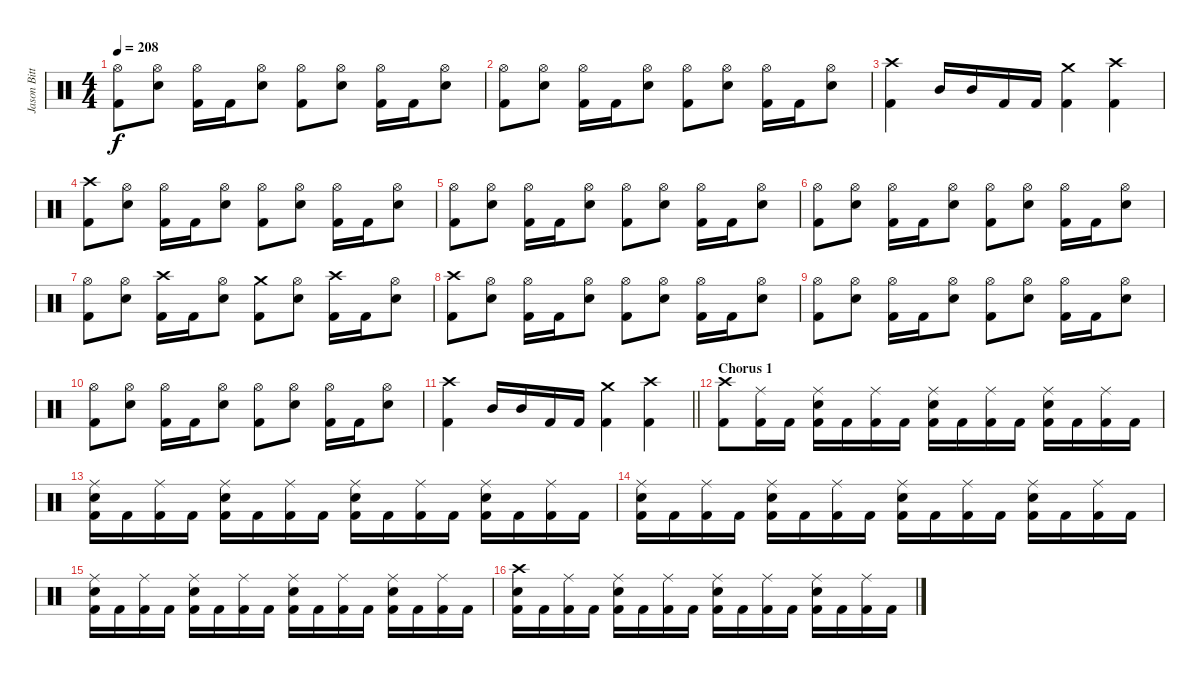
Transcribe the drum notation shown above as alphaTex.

\track ("Jason Bittner" "Jason Bitt") {instrument percussion}
\staff {score}
\articulation defaults
\ts (4 4)
\tempo 208
\clef neutral
\ks c
("Hi-Hat (open)" "Kick (hit) 2").8{dy f} ("Hi-Hat (open)" "Electric Snare (hit)").8 ("Hi-Hat (open)" "Kick (hit) 2").16 "Kick (hit) 2".16 ("Hi-Hat (open)" "Electric Snare (hit)").8 ("Hi-Hat (open)" "Kick (hit) 2").8 ("Hi-Hat (open)" "Electric Snare (hit)").8 ("Hi-Hat (open)" "Kick (hit) 2").16 "Kick (hit) 2".16 ("Hi-Hat (open)" "Electric Snare (hit)").8 |
("Hi-Hat (open)" "Kick (hit) 2").8 ("Hi-Hat (open)" "Electric Snare (hit)").8 ("Hi-Hat (open)" "Kick (hit) 2").16 "Kick (hit) 2".16 ("Hi-Hat (open)" "Electric Snare (hit)").8 ("Hi-Hat (open)" "Kick (hit) 2").8 ("Hi-Hat (open)" "Electric Snare (hit)").8 ("Hi-Hat (open)" "Kick (hit) 2").16 "Kick (hit) 2".16 ("Hi-Hat (open)" "Electric Snare (hit)").8 |
("Crash high (hit)" "Kick (hit) 2").4 "Mid Tom (hit)".16 "Mid Tom (hit)".16 "Kick (hit) 2".16 "Kick (hit) 2".16 ("Crash medium (hit)" "Kick (hit) 2").4 ("Crash high (hit)" "Kick (hit) 2").4 |
("Crash high (hit)" "Kick (hit) 2").8 ("Hi-Hat (open)" "Electric Snare (hit)").8 ("Hi-Hat (open)" "Kick (hit) 2").16 "Kick (hit) 2".16 ("Hi-Hat (open)" "Electric Snare (hit)").8 ("Hi-Hat (open)" "Kick (hit) 2").8 ("Hi-Hat (open)" "Electric Snare (hit)").8 ("Hi-Hat (open)" "Kick (hit) 2").16 "Kick (hit) 2".16 ("Hi-Hat (open)" "Electric Snare (hit)").8 |
("Hi-Hat (open)" "Kick (hit) 2").8 ("Hi-Hat (open)" "Electric Snare (hit)").8 ("Hi-Hat (open)" "Kick (hit) 2").16 "Kick (hit) 2".16 ("Hi-Hat (open)" "Electric Snare (hit)").8 ("Hi-Hat (open)" "Kick (hit) 2").8 ("Hi-Hat (open)" "Electric Snare (hit)").8 ("Hi-Hat (open)" "Kick (hit) 2").16 "Kick (hit) 2".16 ("Hi-Hat (open)" "Electric Snare (hit)").8 |
("Hi-Hat (open)" "Kick (hit) 2").8 ("Hi-Hat (open)" "Electric Snare (hit)").8 ("Hi-Hat (open)" "Kick (hit) 2").16 "Kick (hit) 2".16 ("Hi-Hat (open)" "Electric Snare (hit)").8 ("Hi-Hat (open)" "Kick (hit) 2").8 ("Hi-Hat (open)" "Electric Snare (hit)").8 ("Hi-Hat (open)" "Kick (hit) 2").16 "Kick (hit) 2".16 ("Hi-Hat (open)" "Electric Snare (hit)").8 |
("Hi-Hat (open)" "Kick (hit) 2").8 ("Hi-Hat (open)" "Electric Snare (hit)").8 ("Crash high (hit)" "Kick (hit) 2").16 "Kick (hit) 2".16 ("Hi-Hat (open)" "Electric Snare (hit)").8 ("Crash medium (hit)" "Kick (hit) 2").8 ("Hi-Hat (open)" "Electric Snare (hit)").8 ("Crash high (hit)" "Kick (hit) 2").16 "Kick (hit) 2".16 ("Hi-Hat (open)" "Electric Snare (hit)").8 |
("Crash high (hit)" "Kick (hit) 2").8 ("Hi-Hat (open)" "Electric Snare (hit)").8 ("Hi-Hat (open)" "Kick (hit) 2").16 "Kick (hit) 2".16 ("Hi-Hat (open)" "Electric Snare (hit)").8 ("Hi-Hat (open)" "Kick (hit) 2").8 ("Hi-Hat (open)" "Electric Snare (hit)").8 ("Hi-Hat (open)" "Kick (hit) 2").16 "Kick (hit) 2".16 ("Hi-Hat (open)" "Electric Snare (hit)").8 |
("Hi-Hat (open)" "Kick (hit) 2").8 ("Hi-Hat (open)" "Electric Snare (hit)").8 ("Hi-Hat (open)" "Kick (hit) 2").16 "Kick (hit) 2".16 ("Hi-Hat (open)" "Electric Snare (hit)").8 ("Hi-Hat (open)" "Kick (hit) 2").8 ("Hi-Hat (open)" "Electric Snare (hit)").8 ("Hi-Hat (open)" "Kick (hit) 2").16 "Kick (hit) 2".16 ("Hi-Hat (open)" "Electric Snare (hit)").8 |
("Hi-Hat (open)" "Kick (hit) 2").8 ("Hi-Hat (open)" "Electric Snare (hit)").8 ("Hi-Hat (open)" "Kick (hit) 2").16 "Kick (hit) 2".16 ("Hi-Hat (open)" "Electric Snare (hit)").8 ("Hi-Hat (open)" "Kick (hit) 2").8 ("Hi-Hat (open)" "Electric Snare (hit)").8 ("Hi-Hat (open)" "Kick (hit) 2").16 "Kick (hit) 2".16 ("Hi-Hat (open)" "Electric Snare (hit)").8 |
\barLineRight lightlight
("Crash high (hit)" "Kick (hit) 2").4 "Mid Tom (hit)".16 "Mid Tom (hit)".16 "Kick (hit) 2".16 "Kick (hit) 2".16 ("Crash medium (hit)" "Kick (hit) 2").4 ("Crash high (hit)" "Kick (hit) 2").4 |
\section ("" "Chorus 1")
("Crash high (hit)" "Kick (hit) 2").8 ("Ride (middle)" "Kick (hit) 2").16 "Kick (hit) 2".16 ("Ride (middle)" "Electric Snare (hit)" "Kick (hit) 2").16 "Kick (hit) 2".16 ("Ride (middle)" "Kick (hit) 2").16 "Kick (hit) 2".16 ("Ride (middle)" "Electric Snare (hit)" "Kick (hit) 2").16 "Kick (hit) 2".16 ("Ride (middle)" "Kick (hit) 2").16 "Kick (hit) 2".16 ("Ride (middle)" "Electric Snare (hit)" "Kick (hit) 2").16 "Kick (hit) 2".16 ("Ride (middle)" "Kick (hit) 2").16 "Kick (hit) 2".16 |
("Ride (middle)" "Electric Snare (hit)" "Kick (hit) 2").16 "Kick (hit) 2".16 ("Ride (middle)" "Kick (hit) 2").16 "Kick (hit) 2".16 ("Ride (middle)" "Electric Snare (hit)" "Kick (hit) 2").16 "Kick (hit) 2".16 ("Ride (middle)" "Kick (hit) 2").16 "Kick (hit) 2".16 ("Ride (middle)" "Electric Snare (hit)" "Kick (hit) 2").16 "Kick (hit) 2".16 ("Ride (middle)" "Kick (hit) 2").16 "Kick (hit) 2".16 ("Ride (middle)" "Electric Snare (hit)" "Kick (hit) 2").16 "Kick (hit) 2".16 ("Ride (middle)" "Kick (hit) 2").16 "Kick (hit) 2".16 |
("Ride (middle)" "Electric Snare (hit)" "Kick (hit) 2").16 "Kick (hit) 2".16 ("Ride (middle)" "Kick (hit) 2").16 "Kick (hit) 2".16 ("Ride (middle)" "Electric Snare (hit)" "Kick (hit) 2").16 "Kick (hit) 2".16 ("Ride (middle)" "Kick (hit) 2").16 "Kick (hit) 2".16 ("Ride (middle)" "Electric Snare (hit)" "Kick (hit) 2").16 "Kick (hit) 2".16 ("Ride (middle)" "Kick (hit) 2").16 "Kick (hit) 2".16 ("Ride (middle)" "Electric Snare (hit)" "Kick (hit) 2").16 "Kick (hit) 2".16 ("Ride (middle)" "Kick (hit) 2").16 "Kick (hit) 2".16 |
("Ride (middle)" "Electric Snare (hit)" "Kick (hit) 2").16 "Kick (hit) 2".16 ("Ride (middle)" "Kick (hit) 2").16 "Kick (hit) 2".16 ("Ride (middle)" "Electric Snare (hit)" "Kick (hit) 2").16 "Kick (hit) 2".16 ("Ride (middle)" "Kick (hit) 2").16 "Kick (hit) 2".16 ("Ride (middle)" "Electric Snare (hit)" "Kick (hit) 2").16 "Kick (hit) 2".16 ("Ride (middle)" "Kick (hit) 2").16 "Kick (hit) 2".16 ("Ride (middle)" "Electric Snare (hit)" "Kick (hit) 2").16 "Kick (hit) 2".16 ("Ride (middle)" "Kick (hit) 2").16 "Kick (hit) 2".16 |
("Crash high (hit)" "Electric Snare (hit)" "Kick (hit) 2").16 "Kick (hit) 2".16 ("Ride (middle)" "Kick (hit) 2").16 "Kick (hit) 2".16 ("Ride (middle)" "Electric Snare (hit)" "Kick (hit) 2").16 "Kick (hit) 2".16 ("Ride (middle)" "Kick (hit) 2").16 "Kick (hit) 2".16 ("Ride (middle)" "Electric Snare (hit)" "Kick (hit) 2").16 "Kick (hit) 2".16 ("Ride (middle)" "Kick (hit) 2").16 "Kick (hit) 2".16 ("Ride (middle)" "Electric Snare (hit)" "Kick (hit) 2").16 "Kick (hit) 2".16 ("Ride (middle)" "Kick (hit) 2").16 "Kick (hit) 2".16
